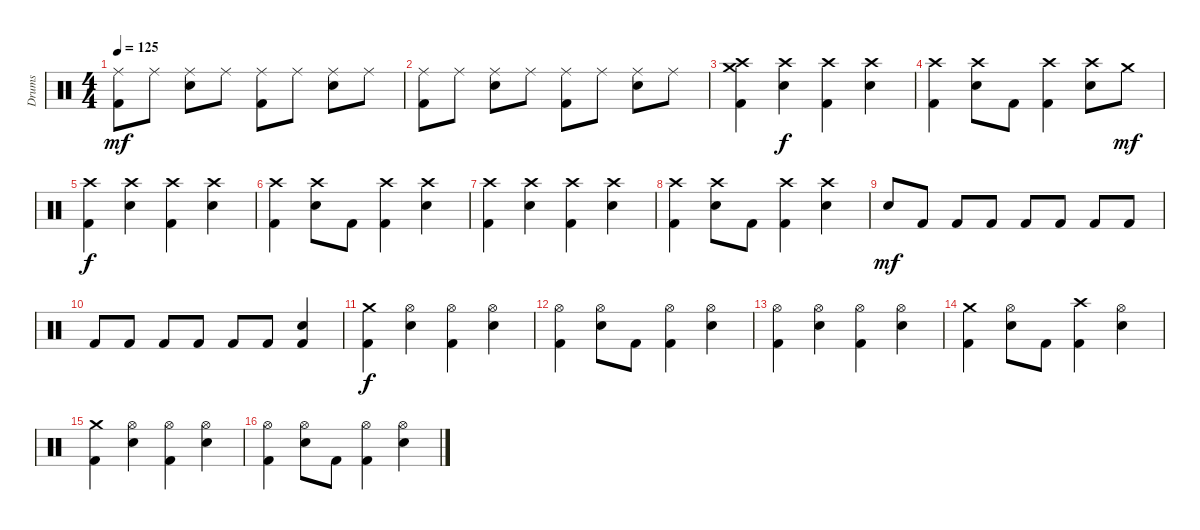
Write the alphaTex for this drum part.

\track ("Drums" "Drums") {instrument percussion}
\staff {score}
\articulation defaults
\ts (4 4)
\tempo 125
\clef neutral
\ks c
("Ride (middle)" "Kick (hit) 2").8{dy mf} "Ride (middle)".8 ("Ride (middle)" "Electric Snare (hit)").8 "Ride (middle)".8 ("Ride (middle)" "Kick (hit) 2").8 "Ride (middle)".8 ("Ride (middle)" "Electric Snare (hit)").8 "Ride (middle)".8 |
("Ride (middle)" "Kick (hit) 2").8 "Ride (middle)".8 ("Ride (middle)" "Electric Snare (hit)").8 "Ride (middle)".8 ("Ride (middle)" "Kick (hit) 2").8 "Ride (middle)".8 ("Ride (middle)" "Electric Snare (hit)").8 "Ride (middle)".8 |
("Crash high (hit)" "Crash medium (hit)" "Kick (hit) 2").4 ("Crash high (hit)" "Electric Snare (hit)").4{dy f} ("Crash high (hit)" "Kick (hit) 2").4 ("Crash high (hit)" "Electric Snare (hit)").4 |
("Crash high (hit)" "Kick (hit) 2").4 ("Crash high (hit)" "Electric Snare (hit)").8 "Kick (hit) 2".8 ("Crash high (hit)" "Kick (hit) 2").4 ("Crash high (hit)" "Electric Snare (hit)").8 "Crash medium (hit)".8{dy mf} |
("Crash high (hit)" "Kick (hit) 2").4{dy f} ("Crash high (hit)" "Electric Snare (hit)").4 ("Crash high (hit)" "Kick (hit) 2").4 ("Crash high (hit)" "Electric Snare (hit)").4 |
("Crash high (hit)" "Kick (hit) 2").4 ("Crash high (hit)" "Electric Snare (hit)").8 "Kick (hit) 2".8 ("Crash high (hit)" "Kick (hit) 2").4 ("Crash high (hit)" "Electric Snare (hit)").4 |
("Crash high (hit)" "Kick (hit) 2").4 ("Crash high (hit)" "Electric Snare (hit)").4 ("Crash high (hit)" "Kick (hit) 2").4 ("Crash high (hit)" "Electric Snare (hit)").4 |
("Crash high (hit)" "Kick (hit) 2").4 ("Crash high (hit)" "Electric Snare (hit)").8 "Kick (hit) 2".8 ("Crash high (hit)" "Kick (hit) 2").4 ("Crash high (hit)" "Electric Snare (hit)").4 |
"Electric Snare (hit)".8{dy mf} "Kick (hit) 2".8 "Kick (hit) 2".8 "Kick (hit) 2".8 "Kick (hit) 2".8 "Kick (hit) 2".8 "Kick (hit) 2".8 "Kick (hit) 2".8 |
"Kick (hit) 2".8 "Kick (hit) 2".8 "Kick (hit) 2".8 "Kick (hit) 2".8 "Kick (hit) 2".8 "Kick (hit) 2".8 ("Electric Snare (hit)" "Kick (hit) 2").4 |
("Crash medium (hit)" "Kick (hit) 2").4{dy f} ("Hi-Hat (open)" "Electric Snare (hit)").4 ("Hi-Hat (open)" "Kick (hit) 2").4 ("Hi-Hat (open)" "Electric Snare (hit)").4 |
("Hi-Hat (open)" "Kick (hit) 2").4 ("Hi-Hat (open)" "Electric Snare (hit)").8 "Kick (hit) 2".8 ("Hi-Hat (open)" "Kick (hit) 2").4 ("Hi-Hat (open)" "Electric Snare (hit)").4 |
("Hi-Hat (open)" "Kick (hit) 2").4 ("Hi-Hat (open)" "Electric Snare (hit)").4 ("Hi-Hat (open)" "Kick (hit) 2").4 ("Hi-Hat (open)" "Electric Snare (hit)").4 |
("Crash medium (hit)" "Kick (hit) 2").4 ("Hi-Hat (open)" "Electric Snare (hit)").8 "Kick (hit) 2".8 ("Crash high (hit)" "Kick (hit) 2").4 ("Hi-Hat (open)" "Electric Snare (hit)").4 |
("Crash medium (hit)" "Kick (hit) 2").4 ("Hi-Hat (open)" "Electric Snare (hit)").4 ("Hi-Hat (open)" "Kick (hit) 2").4 ("Hi-Hat (open)" "Electric Snare (hit)").4 |
("Hi-Hat (open)" "Kick (hit) 2").4 ("Hi-Hat (open)" "Electric Snare (hit)").8 "Kick (hit) 2".8 ("Hi-Hat (open)" "Kick (hit) 2").4 ("Hi-Hat (open)" "Electric Snare (hit)").4
